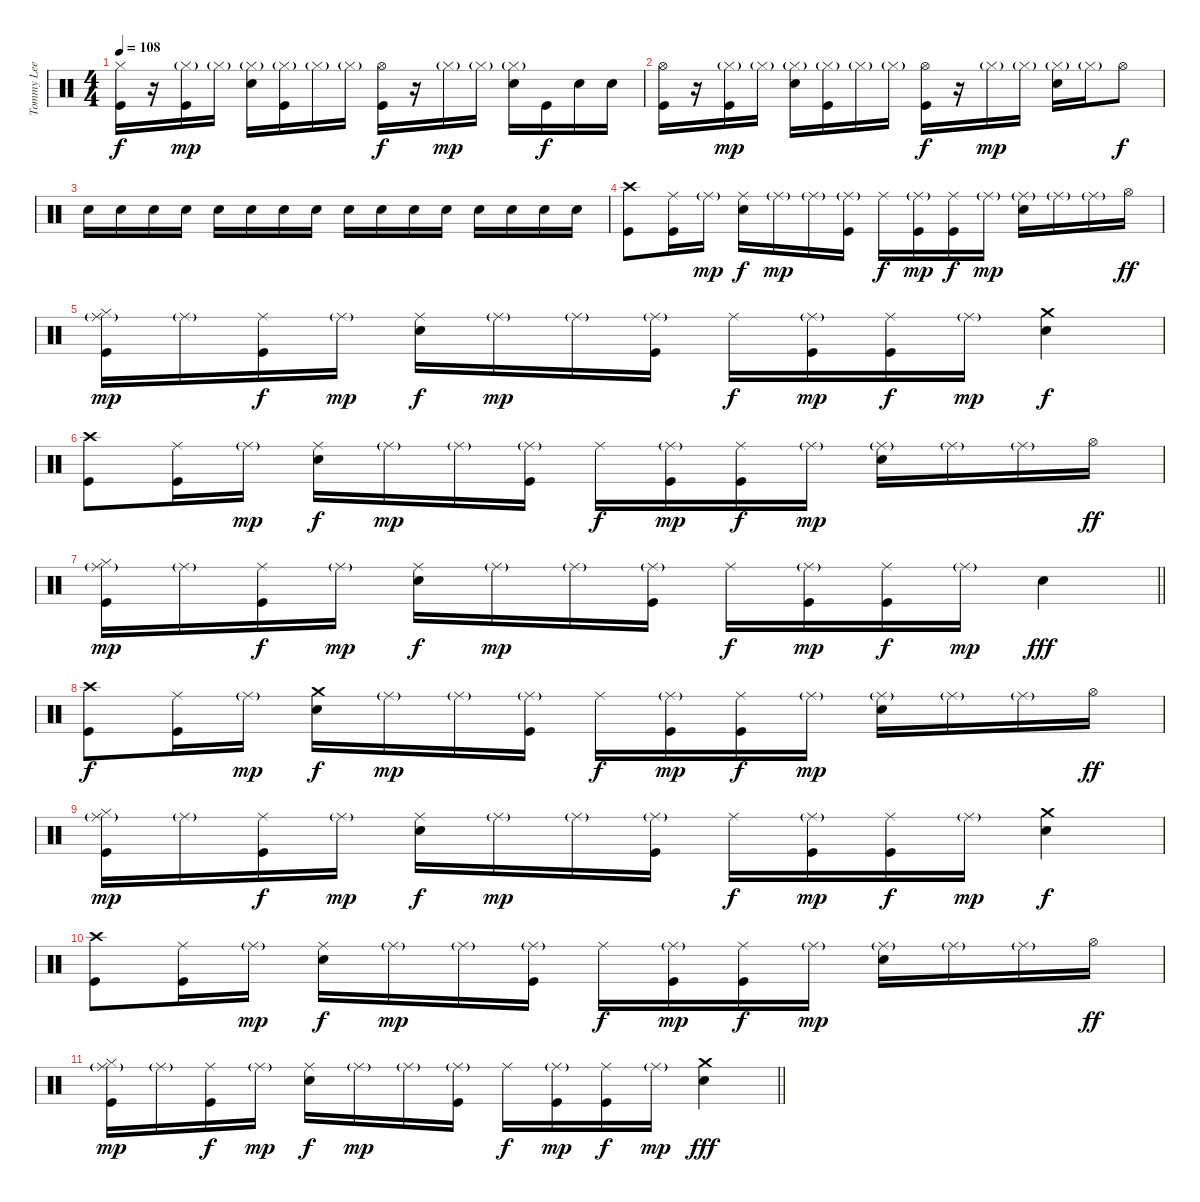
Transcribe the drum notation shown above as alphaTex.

\track ("Tommy Lee" "Tommy Lee") {instrument percussion}
\staff {score}
\articulation defaults
\ts (4 4)
\tempo 108
\clef neutral
\ks c
("Hi-Hat (closed)" "Kick (hit)").16{dy f} r.16 ("Hi-Hat (closed)"{g} "Kick (hit)").16{dy mp} "Hi-Hat (closed)"{g}.16 ("Hi-Hat (closed)"{g} "Snare (hit) 2").16 ("Hi-Hat (closed)"{g} "Kick (hit)").16 "Hi-Hat (closed)"{g}.16 "Hi-Hat (closed)"{g}.16 ("Hi-Hat (open)" "Kick (hit)").16{dy f} r.16 "Hi-Hat (closed)"{g}.16{dy mp} "Hi-Hat (closed)"{g}.16 ("Hi-Hat (closed)"{g} "Snare (hit) 2").16 "Kick (hit)".16{dy f} "Snare (hit) 2".16 "Snare (hit) 2".16 |
("Hi-Hat (open)" "Kick (hit)").16 r.16 ("Hi-Hat (closed)"{g} "Kick (hit)").16{dy mp} "Hi-Hat (closed)"{g}.16 ("Hi-Hat (closed)"{g} "Snare (hit) 2").16 ("Hi-Hat (closed)"{g} "Kick (hit)").16 "Hi-Hat (closed)"{g}.16 "Hi-Hat (closed)"{g}.16 ("Hi-Hat (open)" "Kick (hit)").16{dy f} r.16 "Hi-Hat (closed)"{g}.16{dy mp} "Hi-Hat (closed)"{g}.16 ("Hi-Hat (closed)"{g} "Snare (hit) 2").16 "Hi-Hat (closed)"{g}.16 "Hi-Hat (open)".8{dy f} |
"Snare (hit) 2".16 "Snare (hit) 2".16 "Snare (hit) 2".16 "Snare (hit) 2".16 "Snare (hit) 2".16 "Snare (hit) 2".16 "Snare (hit) 2".16 "Snare (hit) 2".16 "Snare (hit) 2".16 "Snare (hit) 2".16 "Snare (hit) 2".16 "Snare (hit) 2".16 "Snare (hit) 2".16 "Snare (hit) 2".16 "Snare (hit) 2".16 "Snare (hit) 2".16 |
("Crash high (hit)" "Kick (hit)").8 ("Ride (middle)" "Kick (hit)").16 "Ride (middle)"{g}.16{dy mp} ("Ride (middle)" "Snare (hit) 2").16{dy f} "Ride (middle)"{g}.16{dy mp} "Ride (middle)"{g}.16 ("Ride (middle)"{g} "Kick (hit)").16 "Ride (middle)".16{dy f} ("Ride (middle)"{g} "Kick (hit)").16{dy mp} ("Ride (middle)" "Kick (hit)").16{dy f} "Ride (middle)"{g}.16{dy mp} ("Ride (middle)"{g} "Snare (hit) 2").16 "Ride (middle)"{g}.16 "Ride (middle)"{g}.16 "Hi-Hat (open)".16{dy ff} |
("Hi-Hat (closed)" "Ride (middle)"{g} "Kick (hit)").16{dy mp} "Ride (middle)"{g}.16 ("Ride (middle)" "Kick (hit)").16{dy f} "Ride (middle)"{g}.16{dy mp} ("Ride (middle)" "Snare (hit) 2").16{dy f} "Ride (middle)"{g}.16{dy mp} "Ride (middle)"{g}.16 ("Ride (middle)"{g} "Kick (hit)").16 "Ride (middle)".16{dy f} ("Ride (middle)"{g} "Kick (hit)").16{dy mp} ("Ride (middle)" "Kick (hit)").16{dy f} "Ride (middle)"{g}.16{dy mp} ("Crash medium (hit)" "Snare (hit) 2").4{dy f} |
("Crash high (hit)" "Kick (hit)").8 ("Ride (middle)" "Kick (hit)").16 "Ride (middle)"{g}.16{dy mp} ("Ride (middle)" "Snare (hit) 2").16{dy f} "Ride (middle)"{g}.16{dy mp} "Ride (middle)"{g}.16 ("Ride (middle)"{g} "Kick (hit)").16 "Ride (middle)".16{dy f} ("Ride (middle)"{g} "Kick (hit)").16{dy mp} ("Ride (middle)" "Kick (hit)").16{dy f} "Ride (middle)"{g}.16{dy mp} ("Ride (middle)"{g} "Snare (hit) 2").16 "Ride (middle)"{g}.16 "Ride (middle)"{g}.16 "Hi-Hat (open)".16{dy ff} |
\barLineRight lightlight
("Hi-Hat (closed)" "Ride (middle)"{g} "Kick (hit)").16{dy mp} "Ride (middle)"{g}.16 ("Ride (middle)" "Kick (hit)").16{dy f} "Ride (middle)"{g}.16{dy mp} ("Ride (middle)" "Snare (hit) 2").16{dy f} "Ride (middle)"{g}.16{dy mp} "Ride (middle)"{g}.16 ("Ride (middle)"{g} "Kick (hit)").16 "Ride (middle)".16{dy f} ("Ride (middle)"{g} "Kick (hit)").16{dy mp} ("Ride (middle)" "Kick (hit)").16{dy f} "Ride (middle)"{g}.16{dy mp} "Snare (hit) 2".4{dy fff} |
("Crash high (hit)" "Kick (hit)").8{dy f} ("Ride (middle)" "Kick (hit)").16 "Ride (middle)"{g}.16{dy mp} ("Crash medium (hit)" "Snare (hit) 2").16{dy f} "Ride (middle)"{g}.16{dy mp} "Ride (middle)"{g}.16 ("Ride (middle)"{g} "Kick (hit)").16 "Ride (middle)".16{dy f} ("Ride (middle)"{g} "Kick (hit)").16{dy mp} ("Ride (middle)" "Kick (hit)").16{dy f} "Ride (middle)"{g}.16{dy mp} ("Ride (middle)"{g} "Snare (hit) 2").16 "Ride (middle)"{g}.16 "Ride (middle)"{g}.16 "Hi-Hat (open)".16{dy ff} |
("Hi-Hat (closed)" "Ride (middle)"{g} "Kick (hit)").16{dy mp} "Ride (middle)"{g}.16 ("Ride (middle)" "Kick (hit)").16{dy f} "Ride (middle)"{g}.16{dy mp} ("Ride (middle)" "Snare (hit) 2").16{dy f} "Ride (middle)"{g}.16{dy mp} "Ride (middle)"{g}.16 ("Ride (middle)"{g} "Kick (hit)").16 "Ride (middle)".16{dy f} ("Ride (middle)"{g} "Kick (hit)").16{dy mp} ("Ride (middle)" "Kick (hit)").16{dy f} "Ride (middle)"{g}.16{dy mp} ("Crash medium (hit)" "Snare (hit) 2").4{dy f} |
("Crash high (hit)" "Kick (hit)").8 ("Ride (middle)" "Kick (hit)").16 "Ride (middle)"{g}.16{dy mp} ("Ride (middle)" "Snare (hit) 2").16{dy f} "Ride (middle)"{g}.16{dy mp} "Ride (middle)"{g}.16 ("Ride (middle)"{g} "Kick (hit)").16 "Ride (middle)".16{dy f} ("Ride (middle)"{g} "Kick (hit)").16{dy mp} ("Ride (middle)" "Kick (hit)").16{dy f} "Ride (middle)"{g}.16{dy mp} ("Ride (middle)"{g} "Snare (hit) 2").16 "Ride (middle)"{g}.16 "Ride (middle)"{g}.16 "Hi-Hat (open)".16{dy ff} |
\barLineRight lightlight
("Hi-Hat (closed)" "Ride (middle)"{g} "Kick (hit)").16{dy mp} "Ride (middle)"{g}.16 ("Ride (middle)" "Kick (hit)").16{dy f} "Ride (middle)"{g}.16{dy mp} ("Ride (middle)" "Snare (hit) 2").16{dy f} "Ride (middle)"{g}.16{dy mp} "Ride (middle)"{g}.16 ("Ride (middle)"{g} "Kick (hit)").16 "Ride (middle)".16{dy f} ("Ride (middle)"{g} "Kick (hit)").16{dy mp} ("Ride (middle)" "Kick (hit)").16{dy f} "Ride (middle)"{g}.16{dy mp} ("Crash medium (hit)" "Snare (hit) 2").4{dy fff}
